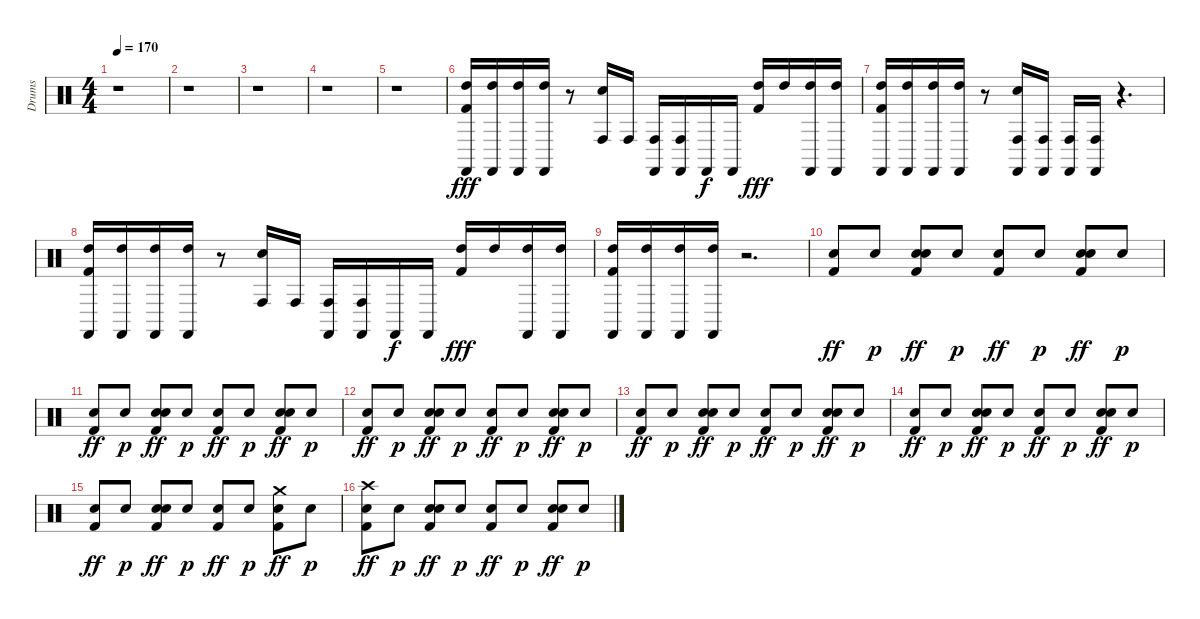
\track ("Drums" "Drums") {instrument percussion}
\staff {score}
\articulation defaults
\ts (4 4)
\tempo 170
\clef neutral
\ks c
r.1{dy fff} |
r.1 |
r.1 |
r.1 |
r.1 |
("Castanets (hit)" "Kick (hit) 2" "High Tom (hit)").16{balance 0} ("Castanets (hit)" "High Tom (hit)").16 ("Castanets (hit)" "High Tom (hit)").16 ("Castanets (hit)" "High Tom (hit)").16 r.8 ("Snare (hit) 2" "Conga high (hit)").16 "Conga high (hit)".16 ("Castanets (hit)" "Conga high (hit)").16 ("Castanets (hit)" "Conga high (hit)").16 "Castanets (hit)".16{dy f} "Castanets (hit)".16 ("Kick (hit) 2" "High Tom (hit)").16{dy fff} "High Tom (hit)".16 ("Castanets (hit)" "High Tom (hit)").16 ("Castanets (hit)" "High Tom (hit)").16 |
("Castanets (hit)" "Kick (hit) 2" "High Tom (hit)").16 ("Castanets (hit)" "High Tom (hit)").16 ("Castanets (hit)" "High Tom (hit)").16 ("Castanets (hit)" "High Tom (hit)").16 r.8 ("Castanets (hit)" "Snare (hit) 2" "Conga high (hit)").16 ("Castanets (hit)" "Conga high (hit)").16 ("Castanets (hit)" "Conga high (hit)").16 ("Castanets (hit)" "Conga high (hit)").16 r.4{d} |
("Castanets (hit)" "Kick (hit) 2" "High Tom (hit)").16 ("Castanets (hit)" "High Tom (hit)").16 ("Castanets (hit)" "High Tom (hit)").16 ("Castanets (hit)" "High Tom (hit)").16 r.8 ("Snare (hit) 2" "Conga high (hit)").16 "Conga high (hit)".16 ("Castanets (hit)" "Conga high (hit)").16 ("Castanets (hit)" "Conga high (hit)").16 "Castanets (hit)".16{dy f} "Castanets (hit)".16 ("Kick (hit) 2" "High Tom (hit)").16{dy fff} "High Tom (hit)".16 ("Castanets (hit)" "High Tom (hit)").16 ("Castanets (hit)" "High Tom (hit)").16 |
("Castanets (hit)" "Kick (hit) 2" "High Tom (hit)").16 ("Castanets (hit)" "High Tom (hit)").16 ("Castanets (hit)" "High Tom (hit)").16 ("Castanets (hit)" "High Tom (hit)").16 r.2{d} |
("Snare (hit) 2" "Kick (hit) 2").8{dy ff balance 8} "Snare (hit) 2".8{dy p} ("Snare (hit) 2" "Snare (hit) 2" "Kick (hit) 2").8{dy ff} "Snare (hit) 2".8{dy p} ("Snare (hit) 2" "Kick (hit) 2").8{dy ff} "Snare (hit) 2".8{dy p} ("Snare (hit) 2" "Snare (hit) 2" "Kick (hit) 2").8{dy ff} "Snare (hit) 2".8{dy p} |
("Snare (hit) 2" "Kick (hit) 2").8{dy ff} "Snare (hit) 2".8{dy p} ("Snare (hit) 2" "Snare (hit) 2" "Kick (hit) 2").8{dy ff} "Snare (hit) 2".8{dy p} ("Snare (hit) 2" "Kick (hit) 2").8{dy ff} "Snare (hit) 2".8{dy p} ("Snare (hit) 2" "Snare (hit) 2" "Kick (hit) 2").8{dy ff} "Snare (hit) 2".8{dy p} |
("Snare (hit) 2" "Kick (hit) 2").8{dy ff} "Snare (hit) 2".8{dy p} ("Snare (hit) 2" "Snare (hit) 2" "Kick (hit) 2").8{dy ff} "Snare (hit) 2".8{dy p} ("Snare (hit) 2" "Kick (hit) 2").8{dy ff} "Snare (hit) 2".8{dy p} ("Snare (hit) 2" "Snare (hit) 2" "Kick (hit) 2").8{dy ff} "Snare (hit) 2".8{dy p} |
("Snare (hit) 2" "Kick (hit) 2").8{dy ff} "Snare (hit) 2".8{dy p} ("Snare (hit) 2" "Snare (hit) 2" "Kick (hit) 2").8{dy ff} "Snare (hit) 2".8{dy p} ("Snare (hit) 2" "Kick (hit) 2").8{dy ff} "Snare (hit) 2".8{dy p} ("Snare (hit) 2" "Snare (hit) 2" "Kick (hit) 2").8{dy ff} "Snare (hit) 2".8{dy p} |
("Snare (hit) 2" "Kick (hit) 2").8{dy ff} "Snare (hit) 2".8{dy p} ("Snare (hit) 2" "Snare (hit) 2" "Kick (hit) 2").8{dy ff} "Snare (hit) 2".8{dy p} ("Snare (hit) 2" "Kick (hit) 2").8{dy ff} "Snare (hit) 2".8{dy p} ("Snare (hit) 2" "Snare (hit) 2" "Kick (hit) 2").8{dy ff} "Snare (hit) 2".8{dy p} |
("Snare (hit) 2" "Kick (hit) 2").8{dy ff} "Snare (hit) 2".8{dy p} ("Snare (hit) 2" "Snare (hit) 2" "Kick (hit) 2").8{dy ff} "Snare (hit) 2".8{dy p} ("Snare (hit) 2" "Kick (hit) 2").8{dy ff} "Snare (hit) 2".8{dy p} ("Crash medium (hit)" "Snare (hit) 2" "Kick (hit) 2").8{dy ff} "Snare (hit) 2".8{dy p} |
("Crash high (hit)" "Snare (hit) 2" "Kick (hit) 2").8{dy ff} "Snare (hit) 2".8{dy p} ("Snare (hit) 2" "Snare (hit) 2" "Kick (hit) 2").8{dy ff} "Snare (hit) 2".8{dy p} ("Snare (hit) 2" "Kick (hit) 2").8{dy ff} "Snare (hit) 2".8{dy p} ("Snare (hit) 2" "Snare (hit) 2" "Kick (hit) 2").8{dy ff} "Snare (hit) 2".8{dy p}
